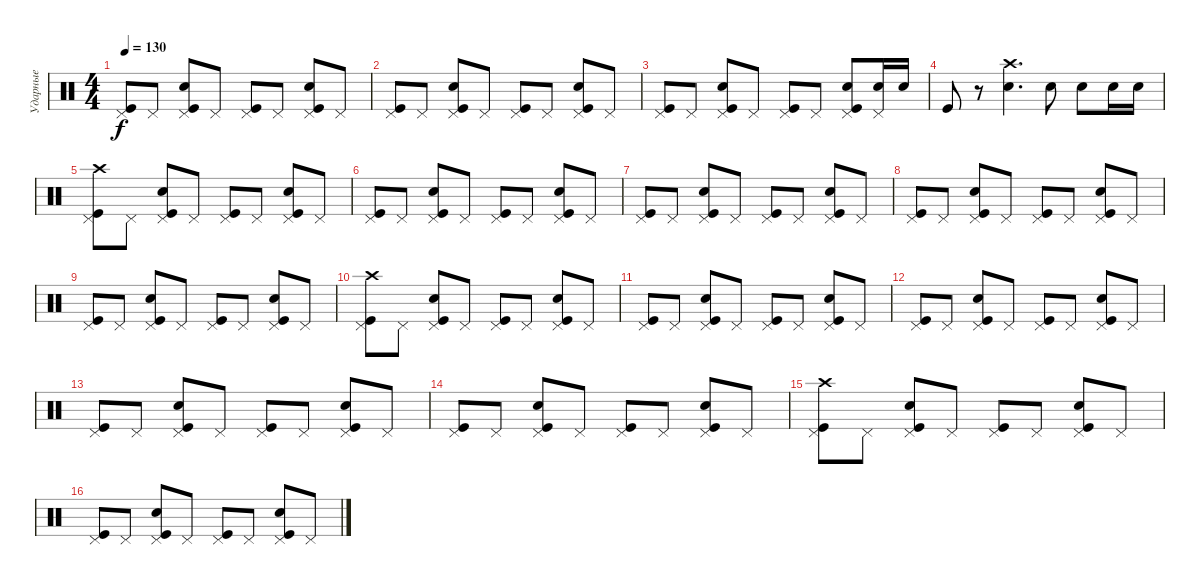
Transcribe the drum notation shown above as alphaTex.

\track ("Ударные" "Ударные") {instrument percussion}
\staff {score}
\articulation defaults
\ts (4 4)
\tempo 130
\clef neutral
\ks c
("Pedal Hi-Hat (hit)" "Kick (hit)").8{dy f} "Pedal Hi-Hat (hit)".8 ("Pedal Hi-Hat (hit)" "Kick (hit)" "Snare (hit) 2").8 "Pedal Hi-Hat (hit)".8 ("Pedal Hi-Hat (hit)" "Kick (hit)").8 "Pedal Hi-Hat (hit)".8 ("Pedal Hi-Hat (hit)" "Kick (hit)" "Snare (hit) 2").8 "Pedal Hi-Hat (hit)".8 |
("Pedal Hi-Hat (hit)" "Kick (hit)").8 "Pedal Hi-Hat (hit)".8 ("Pedal Hi-Hat (hit)" "Kick (hit)" "Snare (hit) 2").8 "Pedal Hi-Hat (hit)".8 ("Pedal Hi-Hat (hit)" "Kick (hit)").8 "Pedal Hi-Hat (hit)".8 ("Pedal Hi-Hat (hit)" "Kick (hit)" "Snare (hit) 2").8 "Pedal Hi-Hat (hit)".8 |
("Pedal Hi-Hat (hit)" "Kick (hit)").8 "Pedal Hi-Hat (hit)".8 ("Pedal Hi-Hat (hit)" "Kick (hit)" "Snare (hit) 2").8 "Pedal Hi-Hat (hit)".8 ("Pedal Hi-Hat (hit)" "Kick (hit)").8 "Pedal Hi-Hat (hit)".8 ("Pedal Hi-Hat (hit)" "Kick (hit)" "Snare (hit) 2").8 ("Pedal Hi-Hat (hit)" "Snare (hit) 2").16 "Snare (hit) 2".16 |
"Kick (hit)".8 r.8 ("Crash high (hit)" "Snare (hit) 2").4{d} "Snare (hit) 2".8 "Snare (hit) 2".8 "Snare (hit) 2".16 "Snare (hit) 2".16 |
("Pedal Hi-Hat (hit)" "Kick (hit)" "Crash high (hit)").8 "Pedal Hi-Hat (hit)".8 ("Pedal Hi-Hat (hit)" "Kick (hit)" "Snare (hit) 2").8 "Pedal Hi-Hat (hit)".8 ("Pedal Hi-Hat (hit)" "Kick (hit)").8 "Pedal Hi-Hat (hit)".8 ("Pedal Hi-Hat (hit)" "Kick (hit)" "Snare (hit) 2").8 "Pedal Hi-Hat (hit)".8 |
("Pedal Hi-Hat (hit)" "Kick (hit)").8 "Pedal Hi-Hat (hit)".8 ("Pedal Hi-Hat (hit)" "Kick (hit)" "Snare (hit) 2").8 "Pedal Hi-Hat (hit)".8 ("Pedal Hi-Hat (hit)" "Kick (hit)").8 "Pedal Hi-Hat (hit)".8 ("Pedal Hi-Hat (hit)" "Kick (hit)" "Snare (hit) 2").8 "Pedal Hi-Hat (hit)".8 |
("Pedal Hi-Hat (hit)" "Kick (hit)").8 "Pedal Hi-Hat (hit)".8 ("Pedal Hi-Hat (hit)" "Kick (hit)" "Snare (hit) 2").8 "Pedal Hi-Hat (hit)".8 ("Pedal Hi-Hat (hit)" "Kick (hit)").8 "Pedal Hi-Hat (hit)".8 ("Pedal Hi-Hat (hit)" "Kick (hit)" "Snare (hit) 2").8 "Pedal Hi-Hat (hit)".8 |
("Pedal Hi-Hat (hit)" "Kick (hit)").8 "Pedal Hi-Hat (hit)".8 ("Pedal Hi-Hat (hit)" "Kick (hit)" "Snare (hit) 2").8 "Pedal Hi-Hat (hit)".8 ("Pedal Hi-Hat (hit)" "Kick (hit)").8 "Pedal Hi-Hat (hit)".8 ("Pedal Hi-Hat (hit)" "Kick (hit)" "Snare (hit) 2").8 "Pedal Hi-Hat (hit)".8 |
("Pedal Hi-Hat (hit)" "Kick (hit)").8 "Pedal Hi-Hat (hit)".8 ("Pedal Hi-Hat (hit)" "Kick (hit)" "Snare (hit) 2").8 "Pedal Hi-Hat (hit)".8 ("Pedal Hi-Hat (hit)" "Kick (hit)").8 "Pedal Hi-Hat (hit)".8 ("Pedal Hi-Hat (hit)" "Kick (hit)" "Snare (hit) 2").8 "Pedal Hi-Hat (hit)".8 |
("Pedal Hi-Hat (hit)" "Kick (hit)" "Crash high (hit)").8 "Pedal Hi-Hat (hit)".8 ("Pedal Hi-Hat (hit)" "Kick (hit)" "Snare (hit) 2").8 "Pedal Hi-Hat (hit)".8 ("Pedal Hi-Hat (hit)" "Kick (hit)").8 "Pedal Hi-Hat (hit)".8 ("Pedal Hi-Hat (hit)" "Kick (hit)" "Snare (hit) 2").8 "Pedal Hi-Hat (hit)".8 |
("Pedal Hi-Hat (hit)" "Kick (hit)").8 "Pedal Hi-Hat (hit)".8 ("Pedal Hi-Hat (hit)" "Kick (hit)" "Snare (hit) 2").8 "Pedal Hi-Hat (hit)".8 ("Pedal Hi-Hat (hit)" "Kick (hit)").8 "Pedal Hi-Hat (hit)".8 ("Pedal Hi-Hat (hit)" "Kick (hit)" "Snare (hit) 2").8 "Pedal Hi-Hat (hit)".8 |
("Pedal Hi-Hat (hit)" "Kick (hit)").8 "Pedal Hi-Hat (hit)".8 ("Pedal Hi-Hat (hit)" "Kick (hit)" "Snare (hit) 2").8 "Pedal Hi-Hat (hit)".8 ("Pedal Hi-Hat (hit)" "Kick (hit)").8 "Pedal Hi-Hat (hit)".8 ("Pedal Hi-Hat (hit)" "Kick (hit)" "Snare (hit) 2").8 "Pedal Hi-Hat (hit)".8 |
("Pedal Hi-Hat (hit)" "Kick (hit)").8 "Pedal Hi-Hat (hit)".8 ("Pedal Hi-Hat (hit)" "Kick (hit)" "Snare (hit) 2").8 "Pedal Hi-Hat (hit)".8 ("Pedal Hi-Hat (hit)" "Kick (hit)").8 "Pedal Hi-Hat (hit)".8 ("Pedal Hi-Hat (hit)" "Kick (hit)" "Snare (hit) 2").8 "Pedal Hi-Hat (hit)".8 |
("Pedal Hi-Hat (hit)" "Kick (hit)").8 "Pedal Hi-Hat (hit)".8 ("Pedal Hi-Hat (hit)" "Kick (hit)" "Snare (hit) 2").8 "Pedal Hi-Hat (hit)".8 ("Pedal Hi-Hat (hit)" "Kick (hit)").8 "Pedal Hi-Hat (hit)".8 ("Pedal Hi-Hat (hit)" "Kick (hit)" "Snare (hit) 2").8 "Pedal Hi-Hat (hit)".8 |
("Pedal Hi-Hat (hit)" "Kick (hit)" "Crash high (hit)").8 "Pedal Hi-Hat (hit)".8 ("Pedal Hi-Hat (hit)" "Kick (hit)" "Snare (hit) 2").8 "Pedal Hi-Hat (hit)".8 ("Pedal Hi-Hat (hit)" "Kick (hit)").8 "Pedal Hi-Hat (hit)".8 ("Pedal Hi-Hat (hit)" "Kick (hit)" "Snare (hit) 2").8 "Pedal Hi-Hat (hit)".8 |
("Pedal Hi-Hat (hit)" "Kick (hit)").8 "Pedal Hi-Hat (hit)".8 ("Pedal Hi-Hat (hit)" "Kick (hit)" "Snare (hit) 2").8 "Pedal Hi-Hat (hit)".8 ("Pedal Hi-Hat (hit)" "Kick (hit)").8 "Pedal Hi-Hat (hit)".8 ("Pedal Hi-Hat (hit)" "Kick (hit)" "Snare (hit) 2").8 "Pedal Hi-Hat (hit)".8
